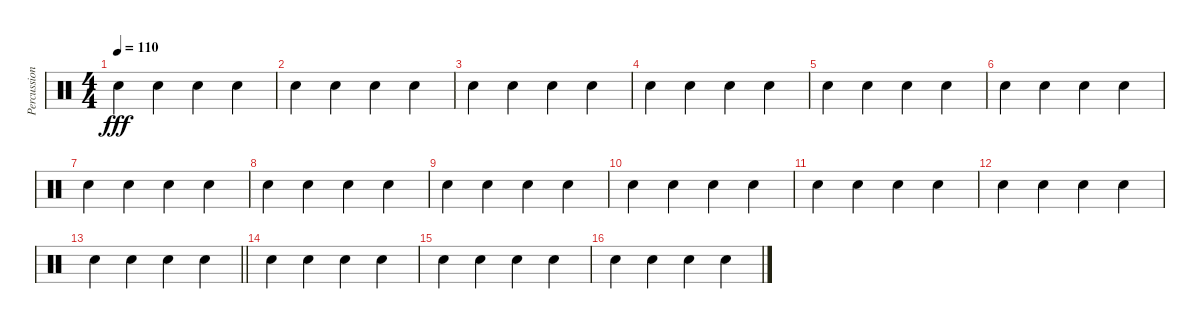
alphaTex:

\track ("Percussion" "Percussion") {mute instrument percussion}
\staff {score}
\articulation defaults
\ts (4 4)
\section ("" "")
\tempo 110
\clef neutral
\ks c "Snare (hit) 2".4{dy fff} "Snare (hit) 2".4 "Snare (hit) 2".4 "Snare (hit) 2".4
|
"Snare (hit) 2".4 "Snare (hit) 2".4 "Snare (hit) 2".4 "Snare (hit) 2".4 |
"Snare (hit) 2".4 "Snare (hit) 2".4 "Snare (hit) 2".4 "Snare (hit) 2".4 |
"Snare (hit) 2".4 "Snare (hit) 2".4 "Snare (hit) 2".4 "Snare (hit) 2".4 |
"Snare (hit) 2".4 "Snare (hit) 2".4 "Snare (hit) 2".4 "Snare (hit) 2".4 |
"Snare (hit) 2".4 "Snare (hit) 2".4 "Snare (hit) 2".4 "Snare (hit) 2".4 |
"Snare (hit) 2".4 "Snare (hit) 2".4 "Snare (hit) 2".4 "Snare (hit) 2".4 |
"Snare (hit) 2".4 "Snare (hit) 2".4 "Snare (hit) 2".4 "Snare (hit) 2".4 |
"Snare (hit) 2".4 "Snare (hit) 2".4 "Snare (hit) 2".4 "Snare (hit) 2".4 |
"Snare (hit) 2".4 "Snare (hit) 2".4 "Snare (hit) 2".4 "Snare (hit) 2".4 |
"Snare (hit) 2".4 "Snare (hit) 2".4 "Snare (hit) 2".4 "Snare (hit) 2".4 |
"Snare (hit) 2".4 "Snare (hit) 2".4 "Snare (hit) 2".4 "Snare (hit) 2".4 |
\barLineRight lightlight "Snare (hit) 2".4 "Snare (hit) 2".4 "Snare (hit) 2".4 "Snare (hit) 2".4
|
"Snare (hit) 2".4 "Snare (hit) 2".4 "Snare (hit) 2".4 "Snare (hit) 2".4 |
"Snare (hit) 2".4 "Snare (hit) 2".4 "Snare (hit) 2".4 "Snare (hit) 2".4 |
"Snare (hit) 2".4 "Snare (hit) 2".4 "Snare (hit) 2".4 "Snare (hit) 2".4
